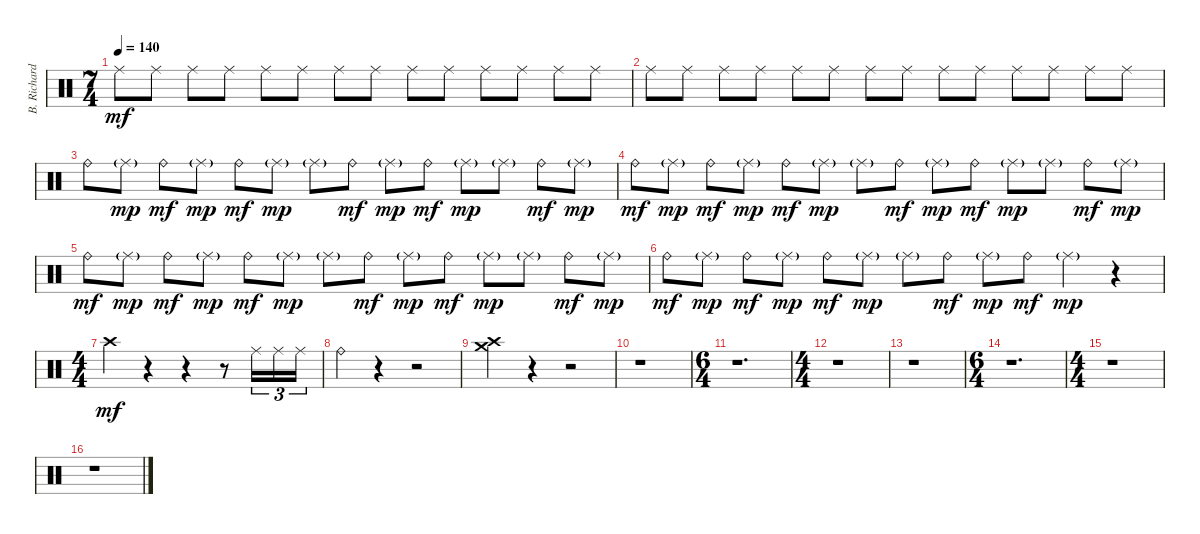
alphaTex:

\track ("B. Richardson Drums" "B. Richard") {instrument percussion}
\staff {score}
\articulation defaults
\ts (7 4)
\tempo 140
\clef neutral
\ks c "Ride (middle)".8{dy mf} "Ride (middle)".8 "Ride (middle)".8 "Ride (middle)".8 "Ride (middle)".8 "Ride (middle)".8 "Ride (middle)".8 "Ride (middle)".8 "Ride (middle)".8 "Ride (middle)".8 "Ride (middle)".8 "Ride (middle)".8 "Ride (middle)".8 "Ride (middle)".8
|
"Ride (middle)".8 "Ride (middle)".8 "Ride (middle)".8 "Ride (middle)".8 "Ride (middle)".8 "Ride (middle)".8 "Ride (middle)".8 "Ride (middle)".8 "Ride (middle)".8 "Ride (middle)".8 "Ride (middle)".8 "Ride (middle)".8 "Ride (middle)".8 "Ride (middle)".8 |
"Ride (bell)".8 "Ride (middle)"{g}.8{dy mp} "Ride (bell)".8{dy mf} "Ride (middle)"{g}.8{dy mp} "Ride (bell)".8{dy mf} "Ride (middle)"{g}.8{dy mp} "Ride (middle)"{g}.8 "Ride (bell)".8{dy mf} "Ride (middle)"{g}.8{dy mp} "Ride (bell)".8{dy mf} "Ride (middle)"{g}.8{dy mp} "Ride (middle)"{g}.8 "Ride (bell)".8{dy mf} "Ride (middle)"{g}.8{dy mp} |
"Ride (bell)".8{dy mf} "Ride (middle)"{g}.8{dy mp} "Ride (bell)".8{dy mf} "Ride (middle)"{g}.8{dy mp} "Ride (bell)".8{dy mf} "Ride (middle)"{g}.8{dy mp} "Ride (middle)"{g}.8 "Ride (bell)".8{dy mf} "Ride (middle)"{g}.8{dy mp} "Ride (bell)".8{dy mf} "Ride (middle)"{g}.8{dy mp} "Ride (middle)"{g}.8 "Ride (bell)".8{dy mf} "Ride (middle)"{g}.8{dy mp} |
"Ride (bell)".8{dy mf} "Ride (middle)"{g}.8{dy mp} "Ride (bell)".8{dy mf} "Ride (middle)"{g}.8{dy mp} "Ride (bell)".8{dy mf} "Ride (middle)"{g}.8{dy mp} "Ride (middle)"{g}.8 "Ride (bell)".8{dy mf} "Ride (middle)"{g}.8{dy mp} "Ride (bell)".8{dy mf} "Ride (middle)"{g}.8{dy mp} "Ride (middle)"{g}.8 "Ride (bell)".8{dy mf} "Ride (middle)"{g}.8{dy mp} |
"Ride (bell)".8{dy mf} "Ride (middle)"{g}.8{dy mp} "Ride (bell)".8{dy mf} "Ride (middle)"{g}.8{dy mp} "Ride (bell)".8{dy mf} "Ride (middle)"{g}.8{dy mp} "Ride (middle)"{g}.8 "Ride (bell)".8{dy mf} "Ride (middle)"{g}.8{dy mp} "Ride (bell)".8{dy mf} "Ride (middle)"{g}.4{dy mp} r.4 |
\ts (4 4)
"Crash high (hit)".4{dy mf} r.4 r.4 r.8 "Ride (middle)".16{tu (3 2)} "Ride (middle)".16{tu (3 2)} "Ride (middle)".16{tu (3 2)} |
"Ride (bell)".4 r.4 r.2 |
("Crash high (hit)" "Crash medium (hit)").4 r.4 r.2 |
r.1 |
\ts (6 4)
r.1{d} |
\ts (4 4)
r.1 |
r.1 |
\ts (6 4)
r.1{d} |
\ts (4 4)
r.1 |
r.1
